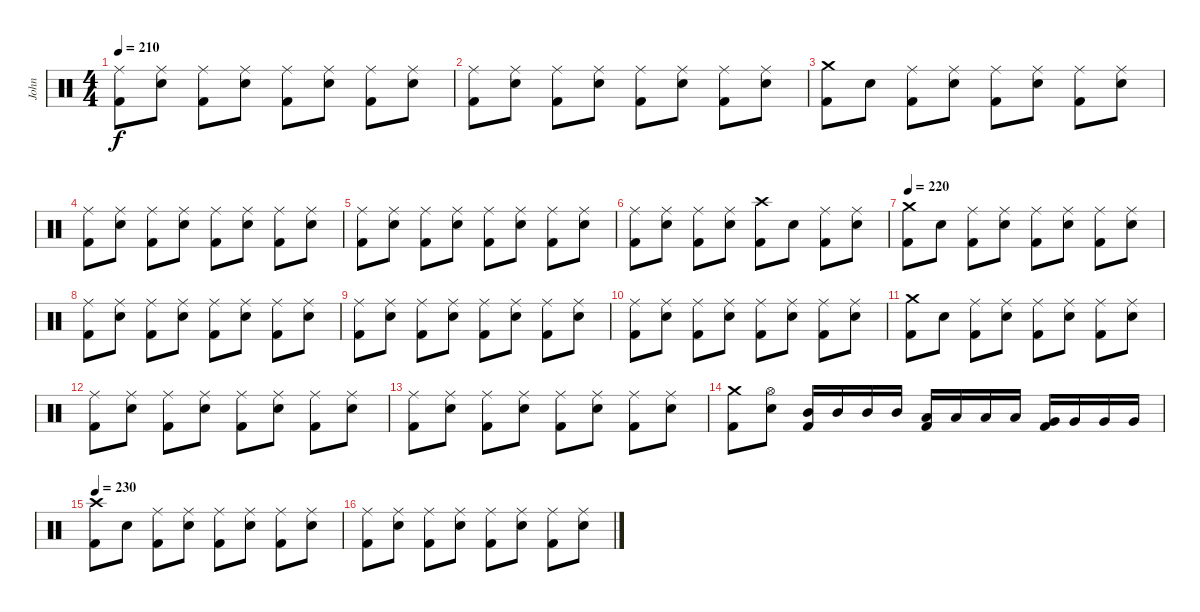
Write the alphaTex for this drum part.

\track ("John" "John") {instrument percussion}
\staff {score}
\articulation defaults
\ts (4 4)
\tempo 210
\clef neutral
\ks c
("Ride (middle)" "Kick (hit) 2").8{dy f} ("Ride (middle)" "Electric Snare (hit)").8 ("Ride (middle)" "Kick (hit) 2").8 ("Ride (middle)" "Electric Snare (hit)").8 ("Ride (middle)" "Kick (hit) 2").8 ("Ride (middle)" "Electric Snare (hit)").8 ("Ride (middle)" "Kick (hit) 2").8 ("Ride (middle)" "Electric Snare (hit)").8 |
("Ride (middle)" "Kick (hit) 2").8 ("Ride (middle)" "Electric Snare (hit)").8 ("Ride (middle)" "Kick (hit) 2").8 ("Ride (middle)" "Electric Snare (hit)").8 ("Ride (middle)" "Kick (hit) 2").8 ("Ride (middle)" "Electric Snare (hit)").8 ("Ride (middle)" "Kick (hit) 2").8 ("Ride (middle)" "Electric Snare (hit)").8 |
("Crash medium (hit)" "Kick (hit) 2").8 "Electric Snare (hit)".8 ("Ride (middle)" "Kick (hit) 2").8 ("Ride (middle)" "Electric Snare (hit)").8 ("Ride (middle)" "Kick (hit) 2").8 ("Ride (middle)" "Electric Snare (hit)").8 ("Ride (middle)" "Kick (hit) 2").8 ("Ride (middle)" "Electric Snare (hit)").8 |
("Ride (middle)" "Kick (hit) 2").8 ("Ride (middle)" "Electric Snare (hit)").8 ("Ride (middle)" "Kick (hit) 2").8 ("Ride (middle)" "Electric Snare (hit)").8 ("Ride (middle)" "Kick (hit) 2").8 ("Ride (middle)" "Electric Snare (hit)").8 ("Ride (middle)" "Kick (hit) 2").8 ("Ride (middle)" "Electric Snare (hit)").8 |
("Ride (middle)" "Kick (hit) 2").8 ("Ride (middle)" "Electric Snare (hit)").8 ("Ride (middle)" "Kick (hit) 2").8 ("Ride (middle)" "Electric Snare (hit)").8 ("Ride (middle)" "Kick (hit) 2").8 ("Ride (middle)" "Electric Snare (hit)").8 ("Ride (middle)" "Kick (hit) 2").8 ("Ride (middle)" "Electric Snare (hit)").8 |
("Ride (middle)" "Kick (hit) 2").8 ("Ride (middle)" "Electric Snare (hit)").8 ("Ride (middle)" "Kick (hit) 2").8 ("Ride (middle)" "Electric Snare (hit)").8 ("Crash high (hit)" "Kick (hit) 2").8 "Electric Snare (hit)".8 ("Ride (middle)" "Kick (hit) 2").8 ("Ride (middle)" "Electric Snare (hit)").8 |
\tempo 220
("Crash medium (hit)" "Kick (hit) 2").8 "Electric Snare (hit)".8 ("Ride (middle)" "Kick (hit) 2").8 ("Ride (middle)" "Electric Snare (hit)").8 ("Ride (middle)" "Kick (hit) 2").8 ("Ride (middle)" "Electric Snare (hit)").8 ("Ride (middle)" "Kick (hit) 2").8 ("Ride (middle)" "Electric Snare (hit)").8 |
("Ride (middle)" "Kick (hit) 2").8 ("Ride (middle)" "Electric Snare (hit)").8 ("Ride (middle)" "Kick (hit) 2").8 ("Ride (middle)" "Electric Snare (hit)").8 ("Ride (middle)" "Kick (hit) 2").8 ("Ride (middle)" "Electric Snare (hit)").8 ("Ride (middle)" "Kick (hit) 2").8 ("Ride (middle)" "Electric Snare (hit)").8 |
("Ride (middle)" "Kick (hit) 2").8 ("Ride (middle)" "Electric Snare (hit)").8 ("Ride (middle)" "Kick (hit) 2").8 ("Ride (middle)" "Electric Snare (hit)").8 ("Ride (middle)" "Kick (hit) 2").8 ("Ride (middle)" "Electric Snare (hit)").8 ("Ride (middle)" "Kick (hit) 2").8 ("Ride (middle)" "Electric Snare (hit)").8 |
("Ride (middle)" "Kick (hit) 2").8 ("Ride (middle)" "Electric Snare (hit)").8 ("Ride (middle)" "Kick (hit) 2").8 ("Ride (middle)" "Electric Snare (hit)").8 ("Ride (middle)" "Kick (hit) 2").8 ("Ride (middle)" "Electric Snare (hit)").8 ("Ride (middle)" "Kick (hit) 2").8 ("Ride (middle)" "Electric Snare (hit)").8 |
("Crash medium (hit)" "Kick (hit) 2").8 "Electric Snare (hit)".8 ("Ride (middle)" "Kick (hit) 2").8 ("Ride (middle)" "Electric Snare (hit)").8 ("Ride (middle)" "Kick (hit) 2").8 ("Ride (middle)" "Electric Snare (hit)").8 ("Ride (middle)" "Kick (hit) 2").8 ("Ride (middle)" "Electric Snare (hit)").8 |
("Ride (middle)" "Kick (hit) 2").8 ("Ride (middle)" "Electric Snare (hit)").8 ("Ride (middle)" "Kick (hit) 2").8 ("Ride (middle)" "Electric Snare (hit)").8 ("Ride (middle)" "Kick (hit) 2").8 ("Ride (middle)" "Electric Snare (hit)").8 ("Ride (middle)" "Kick (hit) 2").8 ("Ride (middle)" "Electric Snare (hit)").8 |
("Ride (middle)" "Kick (hit) 2").8 ("Ride (middle)" "Electric Snare (hit)").8 ("Ride (middle)" "Kick (hit) 2").8 ("Ride (middle)" "Electric Snare (hit)").8 ("Ride (middle)" "Kick (hit) 2").8 ("Ride (middle)" "Electric Snare (hit)").8 ("Ride (middle)" "Kick (hit) 2").8 ("Ride (middle)" "Electric Snare (hit)").8 |
("Crash medium (hit)" "Kick (hit) 2").8 ("Hi-Hat (open)" "Electric Snare (hit)").8 ("Mid Tom (hit)" "Kick (hit) 2").16 "Mid Tom (hit)".16 "Mid Tom (hit)".16 "Mid Tom (hit)".16 ("Low Tom (hit)" "Kick (hit) 2").16 "Low Tom (hit)".16 "Low Tom (hit)".16 "Low Tom (hit)".16 ("Very Low Tom (hit)" "Kick (hit) 2").16 "Very Low Tom (hit)".16 "Very Low Tom (hit)".16 "Very Low Tom (hit)".16 |
\tempo 230
("Crash high (hit)" "Kick (hit) 2").8 "Electric Snare (hit)".8 ("Ride (middle)" "Kick (hit) 2").8 ("Ride (middle)" "Electric Snare (hit)").8 ("Ride (middle)" "Kick (hit) 2").8 ("Ride (middle)" "Electric Snare (hit)").8 ("Ride (middle)" "Kick (hit) 2").8 ("Ride (middle)" "Electric Snare (hit)").8 |
("Ride (middle)" "Kick (hit) 2").8 ("Ride (middle)" "Electric Snare (hit)").8 ("Ride (middle)" "Kick (hit) 2").8 ("Ride (middle)" "Electric Snare (hit)").8 ("Ride (middle)" "Kick (hit) 2").8 ("Ride (middle)" "Electric Snare (hit)").8 ("Ride (middle)" "Kick (hit) 2").8 ("Ride (middle)" "Electric Snare (hit)").8
